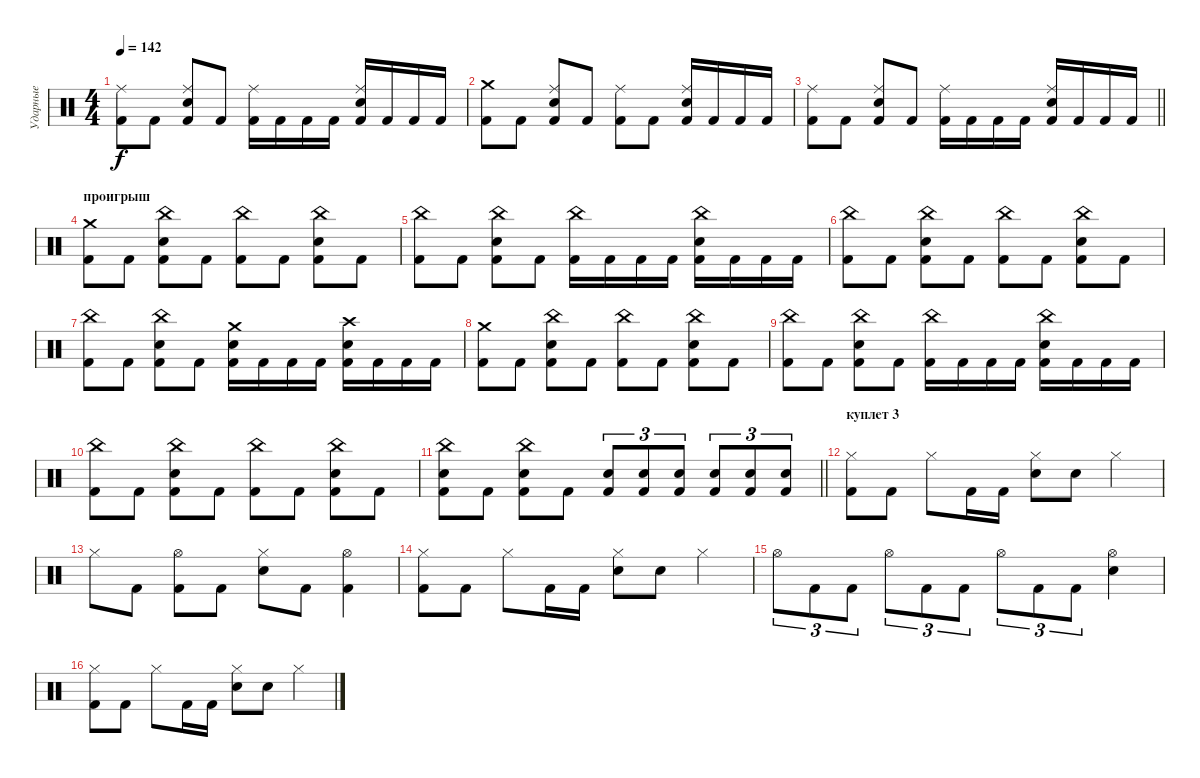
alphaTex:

\track ("Ударные" "Ударные") {instrument percussion}
\staff {score}
\articulation defaults
\ts (4 4)
\tempo 142
\clef neutral
\ks c
("Kick (hit) 2" "Ride (middle)").8{dy f} "Kick (hit) 2".8 ("Kick (hit) 2" "Snare (hit) 2" "Ride (middle)").8 "Kick (hit) 2".8 ("Kick (hit) 2" "Ride (middle)").16 "Kick (hit) 2".16 "Kick (hit) 2".16 "Kick (hit) 2".16 ("Kick (hit) 2" "Snare (hit) 2" "Ride (middle)").16 "Kick (hit) 2".16 "Kick (hit) 2".16 "Kick (hit) 2".16 |
("Kick (hit) 2" "Crash medium (hit)").8 "Kick (hit) 2".8 ("Kick (hit) 2" "Snare (hit) 2" "Ride (middle)").8 "Kick (hit) 2".8 ("Kick (hit) 2" "Ride (middle)").8 "Kick (hit) 2".8 ("Kick (hit) 2" "Snare (hit) 2" "Ride (middle)").16 "Kick (hit) 2".16 "Kick (hit) 2".16 "Kick (hit) 2".16 |
\barLineRight lightlight
("Kick (hit) 2" "Ride (middle)").8 "Kick (hit) 2".8 ("Kick (hit) 2" "Snare (hit) 2" "Ride (middle)").8 "Kick (hit) 2".8 ("Kick (hit) 2" "Ride (middle)").16 "Kick (hit) 2".16 "Kick (hit) 2".16 "Kick (hit) 2".16 ("Kick (hit) 2" "Snare (hit) 2" "Ride (middle)").16 "Kick (hit) 2".16 "Kick (hit) 2".16 "Kick (hit) 2".16 |
\section ("" "проигрыш")
("Kick (hit) 2" "Crash medium (hit)").8 "Kick (hit) 2".8 ("Kick (hit) 2" "Snare (hit) 2" "China (hit)").8 "Kick (hit) 2".8 ("Kick (hit) 2" "China (hit)").8 "Kick (hit) 2".8 ("Kick (hit) 2" "Snare (hit) 2" "China (hit)").8 "Kick (hit) 2".8 |
("Kick (hit) 2" "China (hit)").8 "Kick (hit) 2".8 ("Kick (hit) 2" "Snare (hit) 2" "China (hit)").8 "Kick (hit) 2".8 ("Kick (hit) 2" "China (hit)").16 "Kick (hit) 2".16 "Kick (hit) 2".16 "Kick (hit) 2".16 ("Kick (hit) 2" "Snare (hit) 2" "China (hit)").16 "Kick (hit) 2".16 "Kick (hit) 2".16 "Kick (hit) 2".16 |
("Kick (hit) 2" "China (hit)").8 "Kick (hit) 2".8 ("Kick (hit) 2" "Snare (hit) 2" "China (hit)").8 "Kick (hit) 2".8 ("Kick (hit) 2" "China (hit)").8 "Kick (hit) 2".8 ("Kick (hit) 2" "Snare (hit) 2" "China (hit)").8 "Kick (hit) 2".8 |
("Kick (hit) 2" "China (hit)").8 "Kick (hit) 2".8 ("Kick (hit) 2" "Snare (hit) 2" "China (hit)").8 "Kick (hit) 2".8 ("Kick (hit) 2" "Snare (hit) 2" "Crash medium (hit)").16 "Kick (hit) 2".16 "Kick (hit) 2".16 "Kick (hit) 2".16 ("Kick (hit) 2" "Snare (hit) 2" "Crash high (hit)").16 "Kick (hit) 2".16 "Kick (hit) 2".16 "Kick (hit) 2".16 |
("Kick (hit) 2" "Crash medium (hit)").8 "Kick (hit) 2".8 ("Kick (hit) 2" "Snare (hit) 2" "China (hit)").8 "Kick (hit) 2".8 ("Kick (hit) 2" "China (hit)").8 "Kick (hit) 2".8 ("Kick (hit) 2" "Snare (hit) 2" "China (hit)").8 "Kick (hit) 2".8 |
("Kick (hit) 2" "China (hit)").8 "Kick (hit) 2".8 ("Kick (hit) 2" "Snare (hit) 2" "China (hit)").8 "Kick (hit) 2".8 ("Kick (hit) 2" "China (hit)").16 "Kick (hit) 2".16 "Kick (hit) 2".16 "Kick (hit) 2".16 ("Kick (hit) 2" "Snare (hit) 2" "China (hit)").16 "Kick (hit) 2".16 "Kick (hit) 2".16 "Kick (hit) 2".16 |
("Kick (hit) 2" "China (hit)").8 "Kick (hit) 2".8 ("Kick (hit) 2" "Snare (hit) 2" "China (hit)").8 "Kick (hit) 2".8 ("Kick (hit) 2" "China (hit)").8 "Kick (hit) 2".8 ("Kick (hit) 2" "Snare (hit) 2" "China (hit)").8 "Kick (hit) 2".8 |
\barLineRight lightlight
("Kick (hit) 2" "Snare (hit) 2" "China (hit)").8 "Kick (hit) 2".8 ("Kick (hit) 2" "Snare (hit) 2" "China (hit)").8 "Kick (hit) 2".8 ("Kick (hit) 2" "Snare (hit) 2").8{tu (3 2)} ("Kick (hit) 2" "Snare (hit) 2").8{tu (3 2)} ("Kick (hit) 2" "Snare (hit) 2").8{tu (3 2)} ("Kick (hit) 2" "Snare (hit) 2").8{tu (3 2)} ("Kick (hit) 2" "Snare (hit) 2").8{tu (3 2)} ("Kick (hit) 2" "Snare (hit) 2").8{tu (3 2)} |
\section ("" "куплет 3")
("Kick (hit) 2" "Hi-Hat (closed)").8 "Kick (hit) 2".8 "Hi-Hat (closed)".8 "Kick (hit) 2".16 "Kick (hit) 2".16 ("Snare (hit) 2" "Hi-Hat (closed)").8 "Snare (hit) 2".8 "Hi-Hat (closed)".4 |
"Hi-Hat (closed)".8 "Kick (hit) 2".8 ("Kick (hit) 2" "Hi-Hat (open)").8 "Kick (hit) 2".8 ("Snare (hit) 2" "Hi-Hat (closed)").8 "Kick (hit) 2".8 ("Kick (hit) 2" "Hi-Hat (open)").4 |
("Kick (hit) 2" "Hi-Hat (closed)").8 "Kick (hit) 2".8 "Hi-Hat (closed)".8 "Kick (hit) 2".16 "Kick (hit) 2".16 ("Snare (hit) 2" "Hi-Hat (closed)").8 "Snare (hit) 2".8 "Hi-Hat (closed)".4 |
"Hi-Hat (open)".8{tu (3 2)} "Kick (hit) 2".8{tu (3 2)} "Kick (hit) 2".8{tu (3 2)} "Hi-Hat (open)".8{tu (3 2)} "Kick (hit) 2".8{tu (3 2)} "Kick (hit) 2".8{tu (3 2)} "Hi-Hat (open)".8{tu (3 2)} "Kick (hit) 2".8{tu (3 2)} "Kick (hit) 2".8{tu (3 2)} ("Snare (hit) 2" "Hi-Hat (open)").4 |
("Kick (hit) 2" "Hi-Hat (closed)").8 "Kick (hit) 2".8 "Hi-Hat (closed)".8 "Kick (hit) 2".16 "Kick (hit) 2".16 ("Snare (hit) 2" "Hi-Hat (closed)").8 "Snare (hit) 2".8 "Hi-Hat (closed)".4
